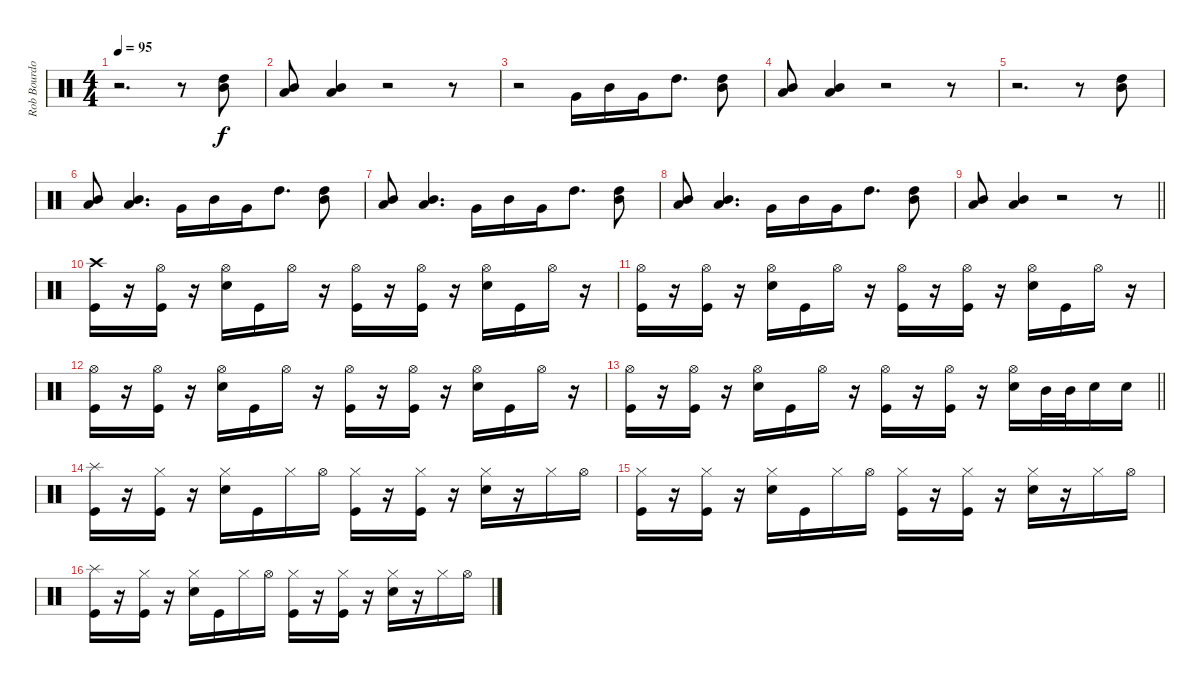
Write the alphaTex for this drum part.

\track ("Rob Bourdon" "Rob Bourdo") {instrument percussion}
\staff {score}
\articulation defaults
\ts (4 4)
\tempo 95
\clef neutral
\ks c
r.2{d dy f} r.8 ("Mid Tom (hit)" "High Tom (hit)").8 |
("Low Tom (hit)" "Mid Tom (hit)").8 ("Mid Tom (hit)" "Low Tom (hit)").4 r.2 r.8 |
r.2 "Very Low Tom (hit)".16 "Mid Tom (hit)".16 "Very Low Tom (hit)".16 "High Tom (hit)".8{d} ("Mid Tom (hit)" "High Tom (hit)").8 |
("Low Tom (hit)" "Mid Tom (hit)").8 ("Mid Tom (hit)" "Low Tom (hit)").4 r.2 r.8 |
r.2{d} r.8 ("Mid Tom (hit)" "High Tom (hit)").8 |
("Low Tom (hit)" "Mid Tom (hit)").8 ("Mid Tom (hit)" "Low Tom (hit)").4{d} "Very Low Tom (hit)".16 "Mid Tom (hit)".16 "Very Low Tom (hit)".16 "High Tom (hit)".8{d} ("Mid Tom (hit)" "High Tom (hit)").8 |
("Low Tom (hit)" "Mid Tom (hit)").8 ("Mid Tom (hit)" "Low Tom (hit)").4{d} "Very Low Tom (hit)".16 "Mid Tom (hit)".16 "Very Low Tom (hit)".16 "High Tom (hit)".8{d} ("Mid Tom (hit)" "High Tom (hit)").8 |
("Low Tom (hit)" "Mid Tom (hit)").8 ("Mid Tom (hit)" "Low Tom (hit)").4{d} "Very Low Tom (hit)".16 "Mid Tom (hit)".16 "Very Low Tom (hit)".16 "High Tom (hit)".8{d} ("Mid Tom (hit)" "High Tom (hit)").8 |
\barLineRight lightlight
("Low Tom (hit)" "Mid Tom (hit)").8 ("Mid Tom (hit)" "Low Tom (hit)").4 r.2 r.8 |
("Crash high (hit)" "Kick (hit)").16 r.16 ("Hi-Hat (open)" "Kick (hit)").16 r.16 ("Hi-Hat (open)" "Snare (hit) 2").16 "Kick (hit)".16 "Hi-Hat (open)".16 r.16 ("Hi-Hat (open)" "Kick (hit)").16 r.16 ("Hi-Hat (open)" "Kick (hit)").16 r.16 ("Hi-Hat (open)" "Snare (hit) 2").16 "Kick (hit)".16 "Hi-Hat (open)".16 r.16 |
("Hi-Hat (open)" "Kick (hit)").16 r.16 ("Hi-Hat (open)" "Kick (hit)").16 r.16 ("Hi-Hat (open)" "Snare (hit) 2").16 "Kick (hit)".16 "Hi-Hat (open)".16 r.16 ("Hi-Hat (open)" "Kick (hit)").16 r.16 ("Hi-Hat (open)" "Kick (hit)").16 r.16 ("Hi-Hat (open)" "Snare (hit) 2").16 "Kick (hit)".16 "Hi-Hat (open)".16 r.16 |
("Hi-Hat (open)" "Kick (hit)").16 r.16 ("Hi-Hat (open)" "Kick (hit)").16 r.16 ("Hi-Hat (open)" "Snare (hit) 2").16 "Kick (hit)".16 "Hi-Hat (open)".16 r.16 ("Hi-Hat (open)" "Kick (hit)").16 r.16 ("Hi-Hat (open)" "Kick (hit)").16 r.16 ("Hi-Hat (open)" "Snare (hit) 2").16 "Kick (hit)".16 "Hi-Hat (open)".16 r.16 |
\barLineRight lightlight
("Hi-Hat (open)" "Kick (hit)").16 r.16 ("Hi-Hat (open)" "Kick (hit)").16 r.16 ("Hi-Hat (open)" "Snare (hit) 2").16 "Kick (hit)".16 "Hi-Hat (open)".16 r.16 ("Hi-Hat (open)" "Kick (hit)").16 r.16 ("Hi-Hat (open)" "Kick (hit)").16 r.16 ("Hi-Hat (open)" "Snare (hit) 2").16 "Mid Tom (hit)".32 "Mid Tom (hit)".32 "Snare (hit) 2".16 "Snare (hit) 2".16 |
("Splash (hit)" "Kick (hit)").16 r.16 ("Hi-Hat (closed)" "Kick (hit)").16 r.16 ("Hi-Hat (closed)" "Snare (hit) 2").16 "Kick (hit)".16 "Hi-Hat (closed)".16 "Hi-Hat (open)".16 ("Hi-Hat (closed)" "Kick (hit)").16 r.16 ("Hi-Hat (closed)" "Kick (hit)").16 r.16 ("Hi-Hat (closed)" "Snare (hit) 2").16 r.16 "Hi-Hat (closed)".16 "Hi-Hat (open)".16 |
("Hi-Hat (closed)" "Kick (hit)").16 r.16 ("Hi-Hat (closed)" "Kick (hit)").16 r.16 ("Hi-Hat (closed)" "Snare (hit) 2").16 "Kick (hit)".16 "Hi-Hat (closed)".16 "Hi-Hat (open)".16 ("Hi-Hat (closed)" "Kick (hit)").16 r.16 ("Hi-Hat (closed)" "Kick (hit)").16 r.16 ("Hi-Hat (closed)" "Snare (hit) 2").16 r.16 "Hi-Hat (closed)".16 "Hi-Hat (open)".16 |
("Splash (hit)" "Kick (hit)").16 r.16 ("Hi-Hat (closed)" "Kick (hit)").16 r.16 ("Hi-Hat (closed)" "Snare (hit) 2").16 "Kick (hit)".16 "Hi-Hat (closed)".16 "Hi-Hat (open)".16 ("Hi-Hat (closed)" "Kick (hit)").16 r.16 ("Hi-Hat (closed)" "Kick (hit)").16 r.16 ("Hi-Hat (closed)" "Snare (hit) 2").16 r.16 "Hi-Hat (closed)".16 "Hi-Hat (open)".16
